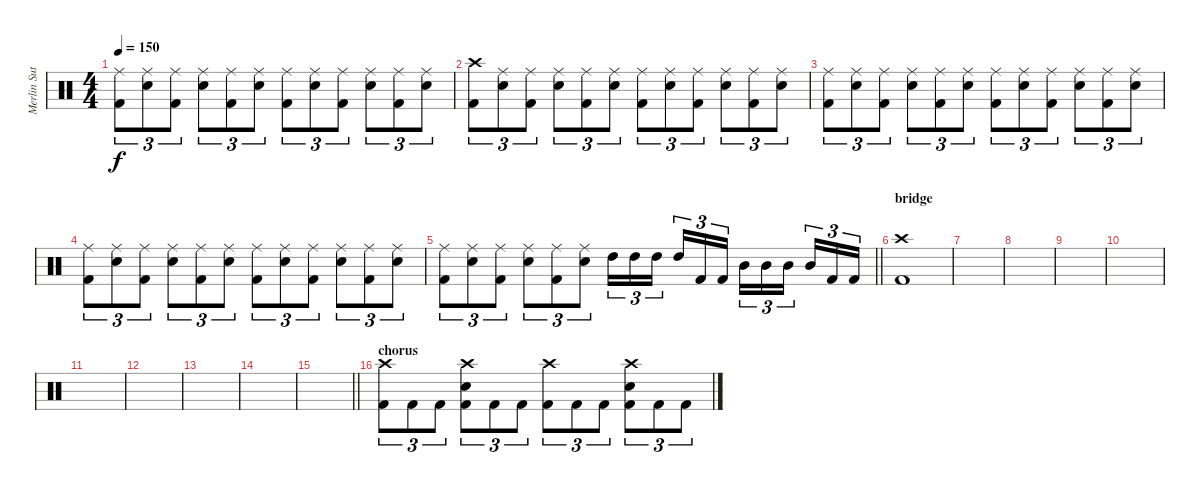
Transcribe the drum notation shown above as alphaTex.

\track ("Merlin Sutter" "Merlin Sut") {instrument percussion}
\staff {score}
\articulation defaults
\ts (4 4)
\tempo 150
\clef neutral
\ks c
("Ride (middle)" "Kick (hit) 2").8{tu (3 2) dy f} ("Ride (middle)" "Snare (hit) 2").8{tu (3 2)} ("Ride (middle)" "Kick (hit) 2").8{tu (3 2)} ("Ride (middle)" "Snare (hit) 2").8{tu (3 2)} ("Ride (middle)" "Kick (hit) 2").8{tu (3 2)} ("Ride (middle)" "Snare (hit) 2").8{tu (3 2)} ("Ride (middle)" "Kick (hit) 2").8{tu (3 2)} ("Ride (middle)" "Snare (hit) 2").8{tu (3 2)} ("Ride (middle)" "Kick (hit) 2").8{tu (3 2)} ("Ride (middle)" "Snare (hit) 2").8{tu (3 2)} ("Ride (middle)" "Kick (hit) 2").8{tu (3 2)} ("Ride (middle)" "Snare (hit) 2").8{tu (3 2)} |
("Crash high (hit)" "Kick (hit) 2").8{tu (3 2)} ("Ride (middle)" "Snare (hit) 2").8{tu (3 2)} ("Ride (middle)" "Kick (hit) 2").8{tu (3 2)} ("Ride (middle)" "Snare (hit) 2").8{tu (3 2)} ("Ride (middle)" "Kick (hit) 2").8{tu (3 2)} ("Ride (middle)" "Snare (hit) 2").8{tu (3 2)} ("Ride (middle)" "Kick (hit) 2").8{tu (3 2)} ("Ride (middle)" "Snare (hit) 2").8{tu (3 2)} ("Ride (middle)" "Kick (hit) 2").8{tu (3 2)} ("Ride (middle)" "Snare (hit) 2").8{tu (3 2)} ("Ride (middle)" "Kick (hit) 2").8{tu (3 2)} ("Ride (middle)" "Snare (hit) 2").8{tu (3 2)} |
("Ride (middle)" "Kick (hit) 2").8{tu (3 2)} ("Ride (middle)" "Snare (hit) 2").8{tu (3 2)} ("Ride (middle)" "Kick (hit) 2").8{tu (3 2)} ("Ride (middle)" "Snare (hit) 2").8{tu (3 2)} ("Ride (middle)" "Kick (hit) 2").8{tu (3 2)} ("Ride (middle)" "Snare (hit) 2").8{tu (3 2)} ("Ride (middle)" "Kick (hit) 2").8{tu (3 2)} ("Ride (middle)" "Snare (hit) 2").8{tu (3 2)} ("Ride (middle)" "Kick (hit) 2").8{tu (3 2)} ("Ride (middle)" "Snare (hit) 2").8{tu (3 2)} ("Ride (middle)" "Kick (hit) 2").8{tu (3 2)} ("Ride (middle)" "Snare (hit) 2").8{tu (3 2)} |
("Ride (middle)" "Kick (hit) 2").8{tu (3 2)} ("Ride (middle)" "Snare (hit) 2").8{tu (3 2)} ("Ride (middle)" "Kick (hit) 2").8{tu (3 2)} ("Ride (middle)" "Snare (hit) 2").8{tu (3 2)} ("Ride (middle)" "Kick (hit) 2").8{tu (3 2)} ("Ride (middle)" "Snare (hit) 2").8{tu (3 2)} ("Ride (middle)" "Kick (hit) 2").8{tu (3 2)} ("Ride (middle)" "Snare (hit) 2").8{tu (3 2)} ("Ride (middle)" "Kick (hit) 2").8{tu (3 2)} ("Ride (middle)" "Snare (hit) 2").8{tu (3 2)} ("Ride (middle)" "Kick (hit) 2").8{tu (3 2)} ("Ride (middle)" "Snare (hit) 2").8{tu (3 2)} |
\barLineRight lightlight
("Ride (middle)" "Kick (hit) 2").8{tu (3 2)} ("Ride (middle)" "Snare (hit) 2").8{tu (3 2)} ("Ride (middle)" "Kick (hit) 2").8{tu (3 2)} ("Ride (middle)" "Snare (hit) 2").8{tu (3 2)} ("Ride (middle)" "Kick (hit) 2").8{tu (3 2)} ("Ride (middle)" "Snare (hit) 2").8{tu (3 2)} "High Tom (hit)".16{tu (3 2)} "High Tom (hit)".16{tu (3 2)} "High Tom (hit)".16{tu (3 2) beam splitsecondary} "High Tom (hit)".16{tu (3 2)} "Kick (hit) 2".16{tu (3 2)} "Kick (hit) 2".16{tu (3 2)} "Mid Tom (hit)".16{tu (3 2)} "Mid Tom (hit)".16{tu (3 2)} "Mid Tom (hit)".16{tu (3 2) beam splitsecondary} "Mid Tom (hit)".16{tu (3 2)} "Kick (hit) 2".16{tu (3 2)} "Kick (hit) 2".16{tu (3 2)} |
\section ("" "bridge")
("Crash high (hit)" "Kick (hit) 2").1 |
|
|
|
|
|
|
|
|
\barLineRight lightlight
|
\section ("" "chorus")
("Crash high (hit)" "Kick (hit) 2").8{tu (3 2)} "Kick (hit) 2".8{tu (3 2)} "Kick (hit) 2".8{tu (3 2)} ("Crash high (hit)" "Snare (hit) 2" "Kick (hit) 2").8{tu (3 2)} "Kick (hit) 2".8{tu (3 2)} "Kick (hit) 2".8{tu (3 2)} ("Crash high (hit)" "Kick (hit) 2").8{tu (3 2)} "Kick (hit) 2".8{tu (3 2)} "Kick (hit) 2".8{tu (3 2)} ("Crash high (hit)" "Snare (hit) 2" "Kick (hit) 2").8{tu (3 2)} "Kick (hit) 2".8{tu (3 2)} "Kick (hit) 2".8{tu (3 2)}
